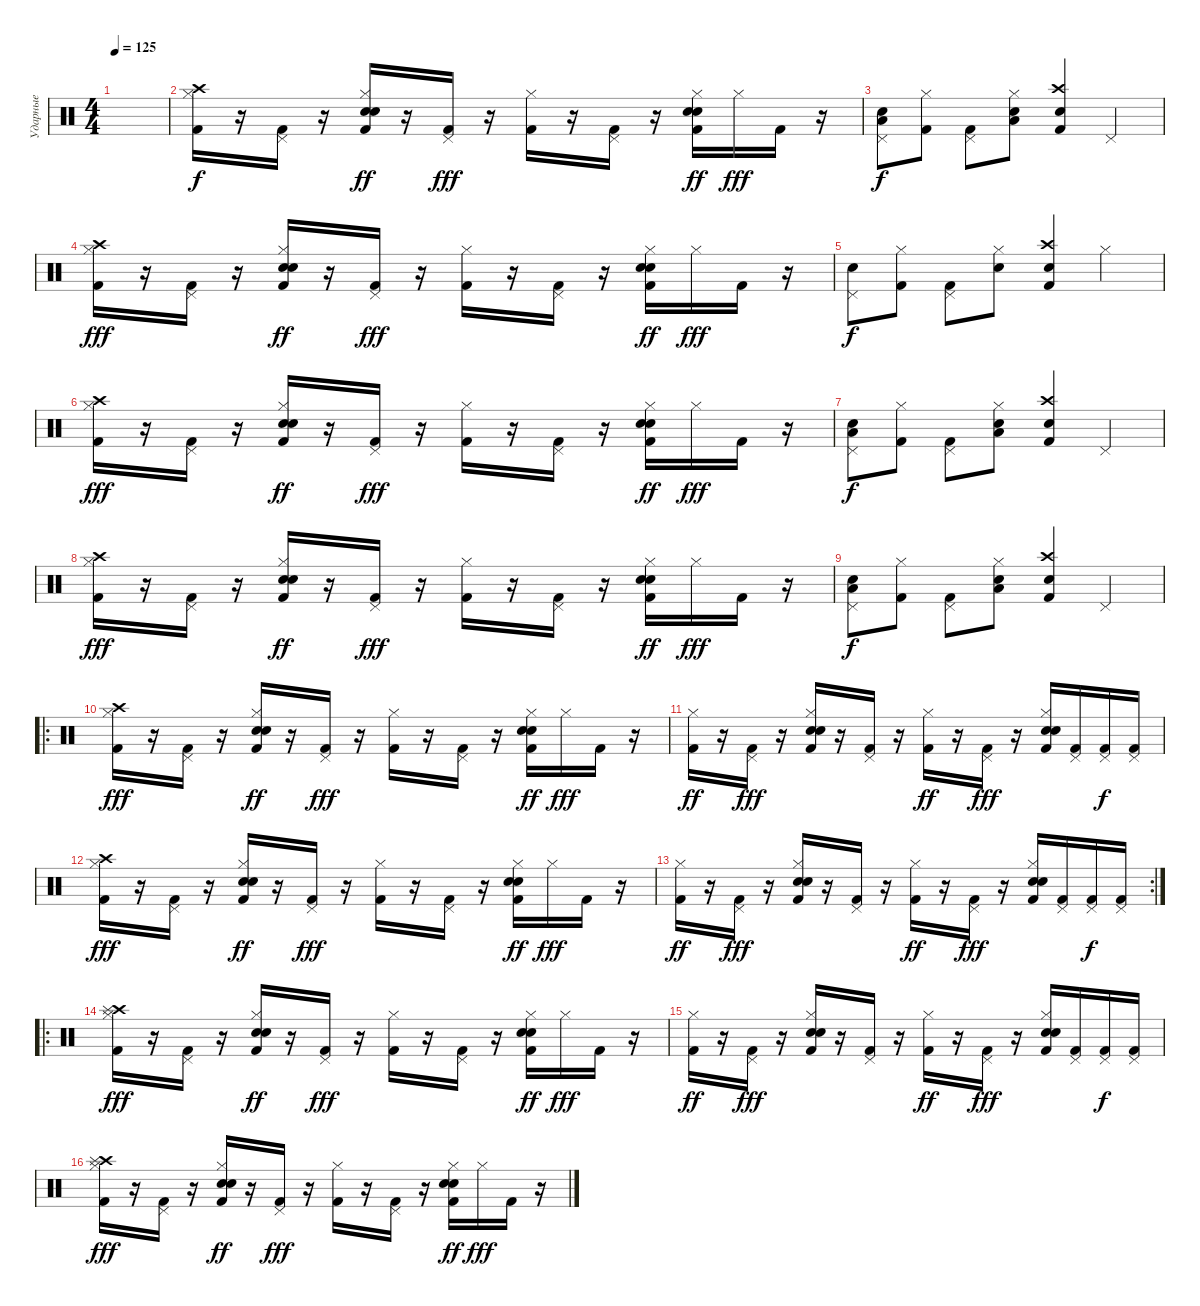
\track ("Ударные" "Ударные") {instrument percussion}
\staff {score}
\articulation defaults
\ts (4 4)
\tempo 125
\clef neutral
\ks c
|
("Kick (hit) 2" "Hi-Hat (closed)" "Crash high (hit)").16 r.16 ("Pedal Hi-Hat (hit)" "Kick (hit) 2").16 r.16 ("Kick (hit) 2" "Hand Clap (hit)" "Hi-Hat (closed)" "Snare (hit) 2").16{dy ff} r.16 ("Pedal Hi-Hat (hit)" "Kick (hit) 2").16{dy fff} r.16 ("Kick (hit) 2" "Hi-Hat (closed)").16 r.16 ("Pedal Hi-Hat (hit)" "Kick (hit) 2").16 r.16 ("Kick (hit) 2" "Hand Clap (hit)" "Hi-Hat (closed)" "Snare (hit) 2").16{dy ff} "Hi-Hat (closed)".16{dy fff} "Kick (hit) 2".16 r.16 |
("Snare (hit) 2" "Pedal Hi-Hat (hit)" "Low Floor Tom (hit)").8{dy f} ("Kick (hit) 2" "Hi-Hat (closed)").8 ("Kick (hit) 2" "Pedal Hi-Hat (hit)").8 ("Hi-Hat (closed)" "Snare (hit) 2" "Low Floor Tom (hit)").8 ("Crash high (hit)" "Snare (hit) 2" "Kick (hit) 2").4 "Pedal Hi-Hat (hit)".4 |
("Kick (hit) 2" "Hi-Hat (closed)" "Crash high (hit)").16{dy fff} r.16 ("Pedal Hi-Hat (hit)" "Kick (hit) 2").16 r.16 ("Kick (hit) 2" "Hand Clap (hit)" "Hi-Hat (closed)" "Snare (hit) 2").16{dy ff} r.16 ("Pedal Hi-Hat (hit)" "Kick (hit) 2").16{dy fff} r.16 ("Kick (hit) 2" "Hi-Hat (closed)").16 r.16 ("Pedal Hi-Hat (hit)" "Kick (hit) 2").16 r.16 ("Kick (hit) 2" "Hand Clap (hit)" "Hi-Hat (closed)" "Snare (hit) 2").16{dy ff} "Hi-Hat (closed)".16{dy fff} "Kick (hit) 2".16 r.16 |
("Snare (hit) 2" "Pedal Hi-Hat (hit)").8{dy f} ("Kick (hit) 2" "Hi-Hat (closed)").8 ("Kick (hit) 2" "Pedal Hi-Hat (hit)").8 ("Hi-Hat (closed)" "Snare (hit) 2").8 ("Crash high (hit)" "Snare (hit) 2" "Kick (hit) 2").4 "Hi-Hat (closed)".4 |
("Kick (hit) 2" "Hi-Hat (closed)" "Crash high (hit)").16{dy fff} r.16 ("Pedal Hi-Hat (hit)" "Kick (hit) 2").16 r.16 ("Kick (hit) 2" "Hand Clap (hit)" "Hi-Hat (closed)" "Snare (hit) 2").16{dy ff} r.16 ("Pedal Hi-Hat (hit)" "Kick (hit) 2").16{dy fff} r.16 ("Kick (hit) 2" "Hi-Hat (closed)").16 r.16 ("Pedal Hi-Hat (hit)" "Kick (hit) 2").16 r.16 ("Kick (hit) 2" "Hand Clap (hit)" "Hi-Hat (closed)" "Snare (hit) 2").16{dy ff} "Hi-Hat (closed)".16{dy fff} "Kick (hit) 2".16 r.16 |
("Snare (hit) 2" "Pedal Hi-Hat (hit)" "Low Floor Tom (hit)").8{dy f} ("Kick (hit) 2" "Hi-Hat (closed)").8 ("Kick (hit) 2" "Pedal Hi-Hat (hit)").8 ("Hi-Hat (closed)" "Snare (hit) 2" "Low Floor Tom (hit)").8 ("Crash high (hit)" "Snare (hit) 2" "Kick (hit) 2").4 "Pedal Hi-Hat (hit)".4 |
("Kick (hit) 2" "Hi-Hat (closed)" "Crash high (hit)").16{dy fff} r.16 ("Pedal Hi-Hat (hit)" "Kick (hit) 2").16 r.16 ("Kick (hit) 2" "Hand Clap (hit)" "Hi-Hat (closed)" "Snare (hit) 2").16{dy ff} r.16 ("Pedal Hi-Hat (hit)" "Kick (hit) 2").16{dy fff} r.16 ("Kick (hit) 2" "Hi-Hat (closed)").16 r.16 ("Pedal Hi-Hat (hit)" "Kick (hit) 2").16 r.16 ("Kick (hit) 2" "Hand Clap (hit)" "Hi-Hat (closed)" "Snare (hit) 2").16{dy ff} "Hi-Hat (closed)".16{dy fff} "Kick (hit) 2".16 r.16 |
("Snare (hit) 2" "Pedal Hi-Hat (hit)" "Low Floor Tom (hit)").8{dy f} ("Kick (hit) 2" "Hi-Hat (closed)").8 ("Kick (hit) 2" "Pedal Hi-Hat (hit)").8 ("Hi-Hat (closed)" "Snare (hit) 2" "Low Floor Tom (hit)").8 ("Crash high (hit)" "Snare (hit) 2" "Kick (hit) 2").4 "Pedal Hi-Hat (hit)".4 |
\ro
("Kick (hit) 2" "Hi-Hat (closed)" "Crash high (hit)").16{dy fff} r.16 ("Pedal Hi-Hat (hit)" "Kick (hit) 2").16 r.16 ("Kick (hit) 2" "Hand Clap (hit)" "Hi-Hat (closed)" "Snare (hit) 2").16{dy ff} r.16 ("Pedal Hi-Hat (hit)" "Kick (hit) 2").16{dy fff} r.16 ("Kick (hit) 2" "Hi-Hat (closed)").16 r.16 ("Pedal Hi-Hat (hit)" "Kick (hit) 2").16 r.16 ("Kick (hit) 2" "Hand Clap (hit)" "Hi-Hat (closed)" "Snare (hit) 2").16{dy ff} "Hi-Hat (closed)".16{dy fff} "Kick (hit) 2".16 r.16 |
("Kick (hit) 2" "Hi-Hat (closed)").16{dy ff} r.16 ("Pedal Hi-Hat (hit)" "Kick (hit) 2").16{dy fff} r.16 ("Kick (hit) 2" "Hand Clap (hit)" "Hi-Hat (closed)" "Snare (hit) 2").16 r.16 ("Pedal Hi-Hat (hit)" "Kick (hit) 2").16 r.16 ("Kick (hit) 2" "Hi-Hat (closed)").16{dy ff} r.16 ("Pedal Hi-Hat (hit)" "Kick (hit) 2").16{dy fff} r.16 ("Kick (hit) 2" "Hand Clap (hit)" "Hi-Hat (closed)" "Snare (hit) 2").16 ("Pedal Hi-Hat (hit)" "Kick (hit) 2").16 ("Pedal Hi-Hat (hit)" "Kick (hit) 2").16{dy f} ("Pedal Hi-Hat (hit)" "Kick (hit) 2").16 |
("Kick (hit) 2" "Hi-Hat (closed)" "Crash high (hit)").16{dy fff} r.16 ("Pedal Hi-Hat (hit)" "Kick (hit) 2").16 r.16 ("Kick (hit) 2" "Hand Clap (hit)" "Hi-Hat (closed)" "Snare (hit) 2").16{dy ff} r.16 ("Pedal Hi-Hat (hit)" "Kick (hit) 2").16{dy fff} r.16 ("Kick (hit) 2" "Hi-Hat (closed)").16 r.16 ("Pedal Hi-Hat (hit)" "Kick (hit) 2").16 r.16 ("Kick (hit) 2" "Hand Clap (hit)" "Hi-Hat (closed)" "Snare (hit) 2").16{dy ff} "Hi-Hat (closed)".16{dy fff} "Kick (hit) 2".16 r.16 |
\rc 2
("Kick (hit) 2" "Hi-Hat (closed)").16{dy ff} r.16 ("Pedal Hi-Hat (hit)" "Kick (hit) 2").16{dy fff} r.16 ("Kick (hit) 2" "Hand Clap (hit)" "Hi-Hat (closed)" "Snare (hit) 2").16 r.16 ("Pedal Hi-Hat (hit)" "Kick (hit) 2").16 r.16 ("Kick (hit) 2" "Hi-Hat (closed)").16{dy ff} r.16 ("Pedal Hi-Hat (hit)" "Kick (hit) 2").16{dy fff} r.16 ("Kick (hit) 2" "Hand Clap (hit)" "Hi-Hat (closed)" "Snare (hit) 2").16 ("Pedal Hi-Hat (hit)" "Kick (hit) 2").16 ("Pedal Hi-Hat (hit)" "Kick (hit) 2").16{dy f} ("Pedal Hi-Hat (hit)" "Kick (hit) 2").16 |
\ro
("Kick (hit) 2" "Hi-Hat (closed)" "Crash high (hit)" "Splash (hit)").16{dy fff} r.16 ("Pedal Hi-Hat (hit)" "Kick (hit) 2").16 r.16 ("Kick (hit) 2" "Hand Clap (hit)" "Hi-Hat (closed)" "Snare (hit) 2").16{dy ff} r.16 ("Pedal Hi-Hat (hit)" "Kick (hit) 2").16{dy fff} r.16 ("Kick (hit) 2" "Hi-Hat (closed)").16 r.16 ("Pedal Hi-Hat (hit)" "Kick (hit) 2").16 r.16 ("Kick (hit) 2" "Hand Clap (hit)" "Hi-Hat (closed)" "Snare (hit) 2").16{dy ff} "Hi-Hat (closed)".16{dy fff} "Kick (hit) 2".16 r.16 |
("Kick (hit) 2" "Hi-Hat (closed)").16{dy ff} r.16 ("Pedal Hi-Hat (hit)" "Kick (hit) 2").16{dy fff} r.16 ("Kick (hit) 2" "Hand Clap (hit)" "Hi-Hat (closed)" "Snare (hit) 2").16 r.16 ("Pedal Hi-Hat (hit)" "Kick (hit) 2").16 r.16 ("Kick (hit) 2" "Hi-Hat (closed)").16{dy ff} r.16 ("Pedal Hi-Hat (hit)" "Kick (hit) 2").16{dy fff} r.16 ("Kick (hit) 2" "Hand Clap (hit)" "Hi-Hat (closed)" "Snare (hit) 2").16 ("Pedal Hi-Hat (hit)" "Kick (hit) 2").16 ("Pedal Hi-Hat (hit)" "Kick (hit) 2").16{dy f} ("Pedal Hi-Hat (hit)" "Kick (hit) 2").16 |
("Kick (hit) 2" "Hi-Hat (closed)" "Crash high (hit)" "Splash (hit)").16{dy fff} r.16 ("Pedal Hi-Hat (hit)" "Kick (hit) 2").16 r.16 ("Kick (hit) 2" "Hand Clap (hit)" "Hi-Hat (closed)" "Snare (hit) 2").16{dy ff} r.16 ("Pedal Hi-Hat (hit)" "Kick (hit) 2").16{dy fff} r.16 ("Kick (hit) 2" "Hi-Hat (closed)").16 r.16 ("Pedal Hi-Hat (hit)" "Kick (hit) 2").16 r.16 ("Kick (hit) 2" "Hand Clap (hit)" "Hi-Hat (closed)" "Snare (hit) 2").16{dy ff} "Hi-Hat (closed)".16{dy fff} "Kick (hit) 2".16 r.16
